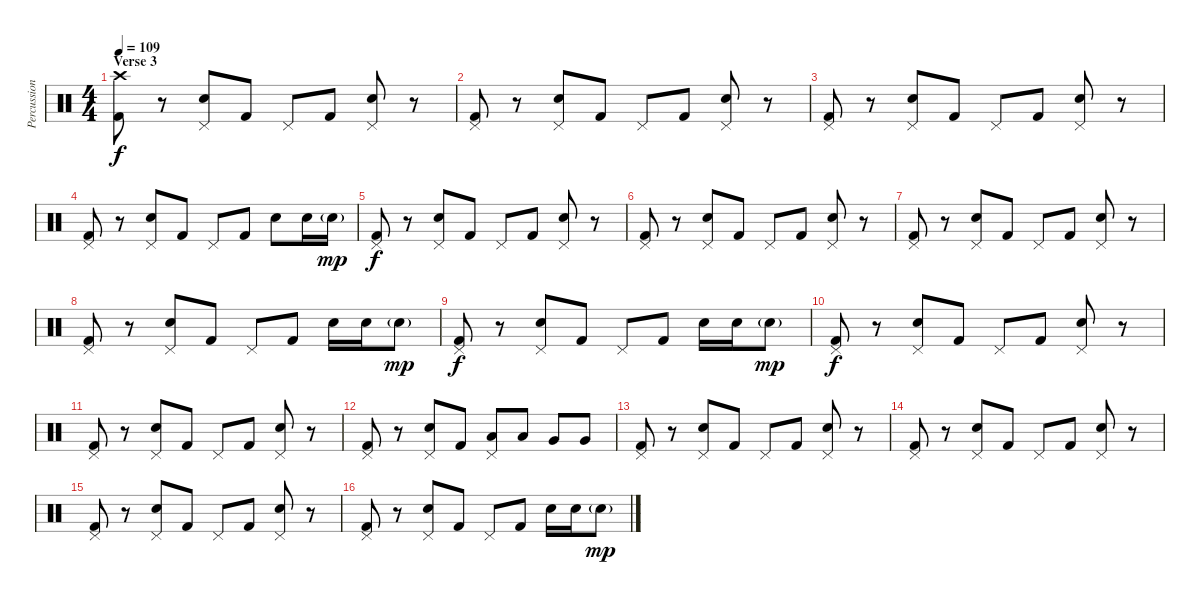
\track ("Percussion" "Percussion") {instrument percussion}
\staff {score}
\articulation defaults
\ts (4 4)
\section ("" "Verse 3")
\tempo 109
\clef neutral
\ks c
("Crash high (hit)" "Kick (hit) 2").8{dy f balance 8} r.8 ("Pedal Hi-Hat (hit)" "Snare (hit) 2").8 "Kick (hit) 2".8 "Pedal Hi-Hat (hit)".8 "Kick (hit) 2".8 ("Pedal Hi-Hat (hit)" "Snare (hit) 2").8 r.8 |
("Pedal Hi-Hat (hit)" "Kick (hit) 2").8 r.8 ("Pedal Hi-Hat (hit)" "Snare (hit) 2").8 "Kick (hit) 2".8 "Pedal Hi-Hat (hit)".8 "Kick (hit) 2".8 ("Pedal Hi-Hat (hit)" "Snare (hit) 2").8 r.8 |
("Pedal Hi-Hat (hit)" "Kick (hit) 2").8 r.8 ("Pedal Hi-Hat (hit)" "Snare (hit) 2").8 "Kick (hit) 2".8 "Pedal Hi-Hat (hit)".8 "Kick (hit) 2".8 ("Pedal Hi-Hat (hit)" "Snare (hit) 2").8 r.8 |
("Pedal Hi-Hat (hit)" "Kick (hit) 2").8 r.8 ("Pedal Hi-Hat (hit)" "Snare (hit) 2").8 "Kick (hit) 2".8 "Pedal Hi-Hat (hit)".8 "Kick (hit) 2".8 "Snare (hit) 2".8 "Snare (hit) 2".16 "Snare (hit) 2"{g}.16{dy mp} |
("Pedal Hi-Hat (hit)" "Kick (hit) 2").8{dy f} r.8 ("Pedal Hi-Hat (hit)" "Snare (hit) 2").8 "Kick (hit) 2".8 "Pedal Hi-Hat (hit)".8 "Kick (hit) 2".8 ("Pedal Hi-Hat (hit)" "Snare (hit) 2").8 r.8 |
("Pedal Hi-Hat (hit)" "Kick (hit) 2").8 r.8 ("Pedal Hi-Hat (hit)" "Snare (hit) 2").8 "Kick (hit) 2".8 "Pedal Hi-Hat (hit)".8 "Kick (hit) 2".8 ("Pedal Hi-Hat (hit)" "Snare (hit) 2").8 r.8 |
("Pedal Hi-Hat (hit)" "Kick (hit) 2").8 r.8 ("Pedal Hi-Hat (hit)" "Snare (hit) 2").8 "Kick (hit) 2".8 "Pedal Hi-Hat (hit)".8 "Kick (hit) 2".8 ("Pedal Hi-Hat (hit)" "Snare (hit) 2").8 r.8 |
("Pedal Hi-Hat (hit)" "Kick (hit) 2").8 r.8 ("Pedal Hi-Hat (hit)" "Snare (hit) 2").8 "Kick (hit) 2".8 "Pedal Hi-Hat (hit)".8 "Kick (hit) 2".8 "Snare (hit) 2".16 "Snare (hit) 2".16 "Snare (hit) 2"{g}.8{dy mp} |
("Pedal Hi-Hat (hit)" "Kick (hit) 2").8{dy f} r.8 ("Pedal Hi-Hat (hit)" "Snare (hit) 2").8 "Kick (hit) 2".8 "Pedal Hi-Hat (hit)".8 "Kick (hit) 2".8 "Snare (hit) 2".16 "Snare (hit) 2".16 "Snare (hit) 2"{g}.8{dy mp} |
("Pedal Hi-Hat (hit)" "Kick (hit) 2").8{dy f} r.8 ("Pedal Hi-Hat (hit)" "Snare (hit) 2").8 "Kick (hit) 2".8 "Pedal Hi-Hat (hit)".8 "Kick (hit) 2".8 ("Pedal Hi-Hat (hit)" "Snare (hit) 2").8 r.8 |
("Pedal Hi-Hat (hit)" "Kick (hit) 2").8 r.8 ("Pedal Hi-Hat (hit)" "Snare (hit) 2").8 "Kick (hit) 2".8 "Pedal Hi-Hat (hit)".8 "Kick (hit) 2".8 ("Pedal Hi-Hat (hit)" "Snare (hit) 2").8 r.8 |
("Pedal Hi-Hat (hit)" "Kick (hit) 2").8 r.8 ("Pedal Hi-Hat (hit)" "Snare (hit) 2").8 "Kick (hit) 2".8 ("Pedal Hi-Hat (hit)" "Low Tom (hit)").8{balance 0} "Low Tom (hit)".8 "Very Low Tom (hit)".8{balance 16} "Very Low Tom (hit)".8 |
("Pedal Hi-Hat (hit)" "Kick (hit) 2").8{balance 8} r.8 ("Pedal Hi-Hat (hit)" "Snare (hit) 2").8 "Kick (hit) 2".8 "Pedal Hi-Hat (hit)".8 "Kick (hit) 2".8 ("Pedal Hi-Hat (hit)" "Snare (hit) 2").8 r.8 |
("Pedal Hi-Hat (hit)" "Kick (hit) 2").8 r.8 ("Pedal Hi-Hat (hit)" "Snare (hit) 2").8 "Kick (hit) 2".8 "Pedal Hi-Hat (hit)".8 "Kick (hit) 2".8 ("Pedal Hi-Hat (hit)" "Snare (hit) 2").8 r.8 |
("Pedal Hi-Hat (hit)" "Kick (hit) 2").8 r.8 ("Pedal Hi-Hat (hit)" "Snare (hit) 2").8 "Kick (hit) 2".8 "Pedal Hi-Hat (hit)".8 "Kick (hit) 2".8 ("Pedal Hi-Hat (hit)" "Snare (hit) 2").8 r.8 |
("Pedal Hi-Hat (hit)" "Kick (hit) 2").8 r.8 ("Pedal Hi-Hat (hit)" "Snare (hit) 2").8 "Kick (hit) 2".8 "Pedal Hi-Hat (hit)".8 "Kick (hit) 2".8 "Snare (hit) 2".16 "Snare (hit) 2".16 "Snare (hit) 2"{g}.8{dy mp}
